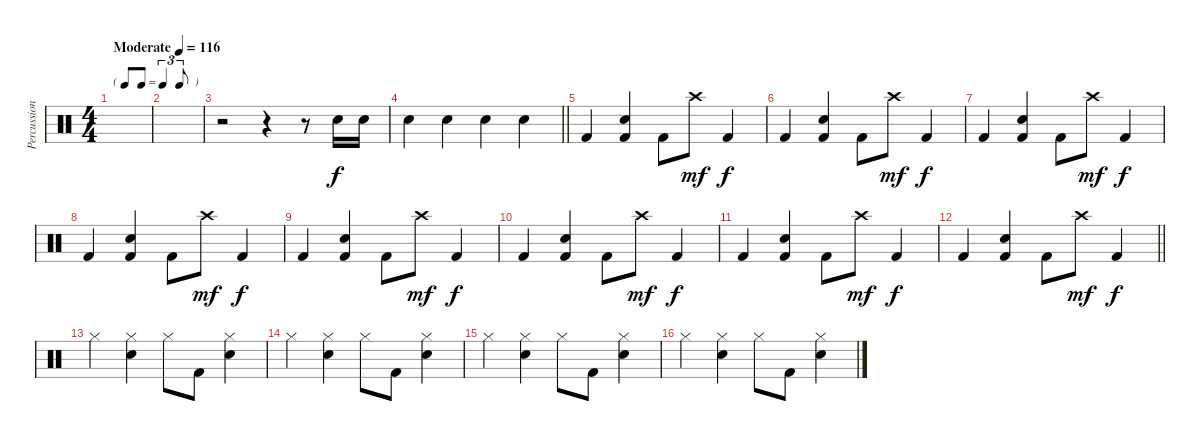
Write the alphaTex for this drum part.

\track ("Percussion" "Percussion") {instrument percussion}
\staff {score}
\articulation defaults
\ts (4 4)
\tf triplet8th
\tempo (116 "Moderate")
\clef neutral
\ks c
|
|
r.2 r.4 r.8 "Snare (hit) 2".16 "Snare (hit) 2".16 |
\barLineRight lightlight "Snare (hit) 2".4 "Snare (hit) 2".4 "Snare (hit) 2".4 "Snare (hit) 2".4
|
"Kick (hit) 2".4{dy f} ("Snare (hit) 2" "Kick (hit) 2").4 "Kick (hit) 2".8 "Crash high (hit)".8{dy mf} "Kick (hit) 2".4{dy f} |
"Kick (hit) 2".4 ("Snare (hit) 2" "Kick (hit) 2").4 "Kick (hit) 2".8 "Crash high (hit)".8{dy mf} "Kick (hit) 2".4{dy f} |
"Kick (hit) 2".4 ("Snare (hit) 2" "Kick (hit) 2").4 "Kick (hit) 2".8 "Crash high (hit)".8{dy mf} "Kick (hit) 2".4{dy f} |
"Kick (hit) 2".4 ("Snare (hit) 2" "Kick (hit) 2").4 "Kick (hit) 2".8 "Crash high (hit)".8{dy mf} "Kick (hit) 2".4{dy f} |
"Kick (hit) 2".4 ("Snare (hit) 2" "Kick (hit) 2").4 "Kick (hit) 2".8 "Crash high (hit)".8{dy mf} "Kick (hit) 2".4{dy f} |
"Kick (hit) 2".4 ("Snare (hit) 2" "Kick (hit) 2").4 "Kick (hit) 2".8 "Crash high (hit)".8{dy mf} "Kick (hit) 2".4{dy f} |
"Kick (hit) 2".4 ("Snare (hit) 2" "Kick (hit) 2").4 "Kick (hit) 2".8 "Crash high (hit)".8{dy mf} "Kick (hit) 2".4{dy f} |
\barLineRight lightlight "Kick (hit) 2".4
("Snare (hit) 2" "Kick (hit) 2").4 "Kick (hit) 2".8 "Crash high (hit)".8{dy mf} "Kick (hit) 2".4{dy f} |
"Hi-Hat (closed)".4 ("Hi-Hat (closed)" "Snare (hit) 2").4 "Hi-Hat (closed)".8 "Kick (hit) 2".8 ("Hi-Hat (closed)" "Snare (hit) 2").4 |
"Hi-Hat (closed)".4 ("Hi-Hat (closed)" "Snare (hit) 2").4 "Hi-Hat (closed)".8 "Kick (hit) 2".8 ("Hi-Hat (closed)" "Snare (hit) 2").4 |
"Hi-Hat (closed)".4 ("Hi-Hat (closed)" "Snare (hit) 2").4 "Hi-Hat (closed)".8 "Kick (hit) 2".8 ("Hi-Hat (closed)" "Snare (hit) 2").4 |
"Hi-Hat (closed)".4 ("Hi-Hat (closed)" "Snare (hit) 2").4 "Hi-Hat (closed)".8 "Kick (hit) 2".8 ("Hi-Hat (closed)" "Snare (hit) 2").4
